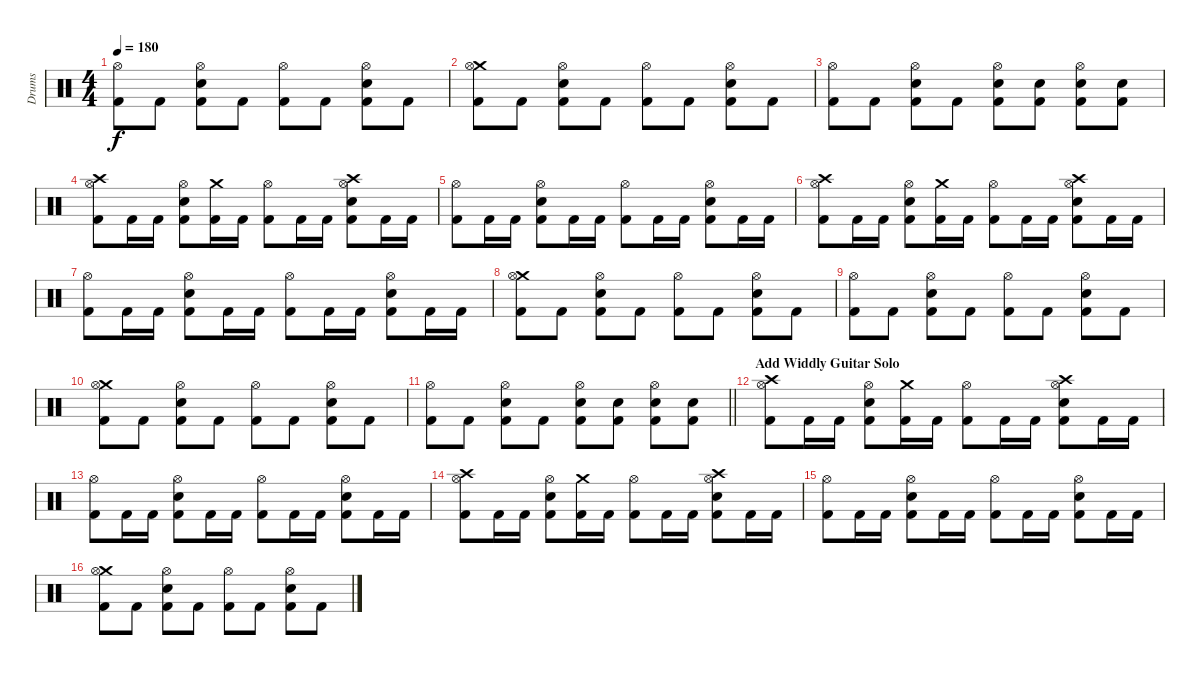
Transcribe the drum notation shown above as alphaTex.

\track ("Drums" "Drums") {instrument percussion}
\staff {score}
\articulation defaults
\ts (4 4)
\tempo 180
\clef neutral
\ks c
("Hi-Hat (open)" "Kick (hit) 2").8{dy f} "Kick (hit) 2".8 ("Hi-Hat (open)" "Snare (hit) 2" "Kick (hit) 2").8 "Kick (hit) 2".8 ("Hi-Hat (open)" "Kick (hit) 2").8 "Kick (hit) 2".8 ("Hi-Hat (open)" "Snare (hit) 2" "Kick (hit) 2").8 "Kick (hit) 2".8 |
("Crash medium (hit)" "Hi-Hat (open)" "Kick (hit) 2").8 "Kick (hit) 2".8 ("Hi-Hat (open)" "Snare (hit) 2" "Kick (hit) 2").8 "Kick (hit) 2".8 ("Hi-Hat (open)" "Kick (hit) 2").8 "Kick (hit) 2".8 ("Hi-Hat (open)" "Snare (hit) 2" "Kick (hit) 2").8 "Kick (hit) 2".8 |
("Hi-Hat (open)" "Kick (hit) 2").8 "Kick (hit) 2".8 ("Hi-Hat (open)" "Snare (hit) 2" "Kick (hit) 2").8 "Kick (hit) 2".8 ("Hi-Hat (open)" "Snare (hit) 2" "Kick (hit) 2").8 ("Snare (hit) 2" "Kick (hit) 2").8 ("Hi-Hat (open)" "Snare (hit) 2" "Kick (hit) 2").8 ("Snare (hit) 2" "Kick (hit) 2").8 |
("Crash high (hit)" "Hi-Hat (open)" "Kick (hit) 2").8 "Kick (hit) 2".16 "Kick (hit) 2".16 ("Hi-Hat (open)" "Snare (hit) 2" "Kick (hit) 2").8 ("Crash medium (hit)" "Kick (hit) 2").16 "Kick (hit) 2".16 ("Hi-Hat (open)" "Kick (hit) 2").8 "Kick (hit) 2".16 "Kick (hit) 2".16 ("Crash high (hit)" "Hi-Hat (open)" "Snare (hit) 2" "Kick (hit) 2").8 "Kick (hit) 2".16 "Kick (hit) 2".16 |
("Hi-Hat (open)" "Kick (hit) 2").8 "Kick (hit) 2".16 "Kick (hit) 2".16 ("Hi-Hat (open)" "Snare (hit) 2" "Kick (hit) 2").8 "Kick (hit) 2".16 "Kick (hit) 2".16 ("Hi-Hat (open)" "Kick (hit) 2").8 "Kick (hit) 2".16 "Kick (hit) 2".16 ("Hi-Hat (open)" "Snare (hit) 2" "Kick (hit) 2").8 "Kick (hit) 2".16 "Kick (hit) 2".16 |
("Crash high (hit)" "Hi-Hat (open)" "Kick (hit) 2").8 "Kick (hit) 2".16 "Kick (hit) 2".16 ("Hi-Hat (open)" "Snare (hit) 2" "Kick (hit) 2").8 ("Crash medium (hit)" "Kick (hit) 2").16 "Kick (hit) 2".16 ("Hi-Hat (open)" "Kick (hit) 2").8 "Kick (hit) 2".16 "Kick (hit) 2".16 ("Crash high (hit)" "Hi-Hat (open)" "Snare (hit) 2" "Kick (hit) 2").8 "Kick (hit) 2".16 "Kick (hit) 2".16 |
("Hi-Hat (open)" "Kick (hit) 2").8 "Kick (hit) 2".16 "Kick (hit) 2".16 ("Hi-Hat (open)" "Snare (hit) 2" "Kick (hit) 2").8 "Kick (hit) 2".16 "Kick (hit) 2".16 ("Hi-Hat (open)" "Kick (hit) 2").8 "Kick (hit) 2".16 "Kick (hit) 2".16 ("Hi-Hat (open)" "Snare (hit) 2" "Kick (hit) 2").8 "Kick (hit) 2".16 "Kick (hit) 2".16 |
("Crash medium (hit)" "Hi-Hat (open)" "Kick (hit) 2").8 "Kick (hit) 2".8 ("Hi-Hat (open)" "Snare (hit) 2" "Kick (hit) 2").8 "Kick (hit) 2".8 ("Hi-Hat (open)" "Kick (hit) 2").8 "Kick (hit) 2".8 ("Hi-Hat (open)" "Snare (hit) 2" "Kick (hit) 2").8 "Kick (hit) 2".8 |
("Hi-Hat (open)" "Kick (hit) 2").8 "Kick (hit) 2".8 ("Hi-Hat (open)" "Snare (hit) 2" "Kick (hit) 2").8 "Kick (hit) 2".8 ("Hi-Hat (open)" "Kick (hit) 2").8 "Kick (hit) 2".8 ("Hi-Hat (open)" "Snare (hit) 2" "Kick (hit) 2").8 "Kick (hit) 2".8 |
("Crash medium (hit)" "Hi-Hat (open)" "Kick (hit) 2").8 "Kick (hit) 2".8 ("Hi-Hat (open)" "Snare (hit) 2" "Kick (hit) 2").8 "Kick (hit) 2".8 ("Hi-Hat (open)" "Kick (hit) 2").8 "Kick (hit) 2".8 ("Hi-Hat (open)" "Snare (hit) 2" "Kick (hit) 2").8 "Kick (hit) 2".8 |
\barLineRight lightlight
("Hi-Hat (open)" "Kick (hit) 2").8 "Kick (hit) 2".8 ("Hi-Hat (open)" "Snare (hit) 2" "Kick (hit) 2").8 "Kick (hit) 2".8 ("Hi-Hat (open)" "Snare (hit) 2" "Kick (hit) 2").8 ("Snare (hit) 2" "Kick (hit) 2").8 ("Hi-Hat (open)" "Snare (hit) 2" "Kick (hit) 2").8 ("Snare (hit) 2" "Kick (hit) 2").8 |
\section ("" "Add Widdly Guitar Solo")
("Crash high (hit)" "Hi-Hat (open)" "Kick (hit) 2").8 "Kick (hit) 2".16 "Kick (hit) 2".16 ("Hi-Hat (open)" "Snare (hit) 2" "Kick (hit) 2").8 ("Crash medium (hit)" "Kick (hit) 2").16 "Kick (hit) 2".16 ("Hi-Hat (open)" "Kick (hit) 2").8 "Kick (hit) 2".16 "Kick (hit) 2".16 ("Crash high (hit)" "Hi-Hat (open)" "Snare (hit) 2" "Kick (hit) 2").8 "Kick (hit) 2".16 "Kick (hit) 2".16 |
("Hi-Hat (open)" "Kick (hit) 2").8 "Kick (hit) 2".16 "Kick (hit) 2".16 ("Hi-Hat (open)" "Snare (hit) 2" "Kick (hit) 2").8 "Kick (hit) 2".16 "Kick (hit) 2".16 ("Hi-Hat (open)" "Kick (hit) 2").8 "Kick (hit) 2".16 "Kick (hit) 2".16 ("Hi-Hat (open)" "Snare (hit) 2" "Kick (hit) 2").8 "Kick (hit) 2".16 "Kick (hit) 2".16 |
("Crash high (hit)" "Hi-Hat (open)" "Kick (hit) 2").8 "Kick (hit) 2".16 "Kick (hit) 2".16 ("Hi-Hat (open)" "Snare (hit) 2" "Kick (hit) 2").8 ("Crash medium (hit)" "Kick (hit) 2").16 "Kick (hit) 2".16 ("Hi-Hat (open)" "Kick (hit) 2").8 "Kick (hit) 2".16 "Kick (hit) 2".16 ("Crash high (hit)" "Hi-Hat (open)" "Snare (hit) 2" "Kick (hit) 2").8 "Kick (hit) 2".16 "Kick (hit) 2".16 |
("Hi-Hat (open)" "Kick (hit) 2").8 "Kick (hit) 2".16 "Kick (hit) 2".16 ("Hi-Hat (open)" "Snare (hit) 2" "Kick (hit) 2").8 "Kick (hit) 2".16 "Kick (hit) 2".16 ("Hi-Hat (open)" "Kick (hit) 2").8 "Kick (hit) 2".16 "Kick (hit) 2".16 ("Hi-Hat (open)" "Snare (hit) 2" "Kick (hit) 2").8 "Kick (hit) 2".16 "Kick (hit) 2".16 |
("Crash medium (hit)" "Hi-Hat (open)" "Kick (hit) 2").8 "Kick (hit) 2".8 ("Hi-Hat (open)" "Snare (hit) 2" "Kick (hit) 2").8 "Kick (hit) 2".8 ("Hi-Hat (open)" "Kick (hit) 2").8 "Kick (hit) 2".8 ("Hi-Hat (open)" "Snare (hit) 2" "Kick (hit) 2").8 "Kick (hit) 2".8
